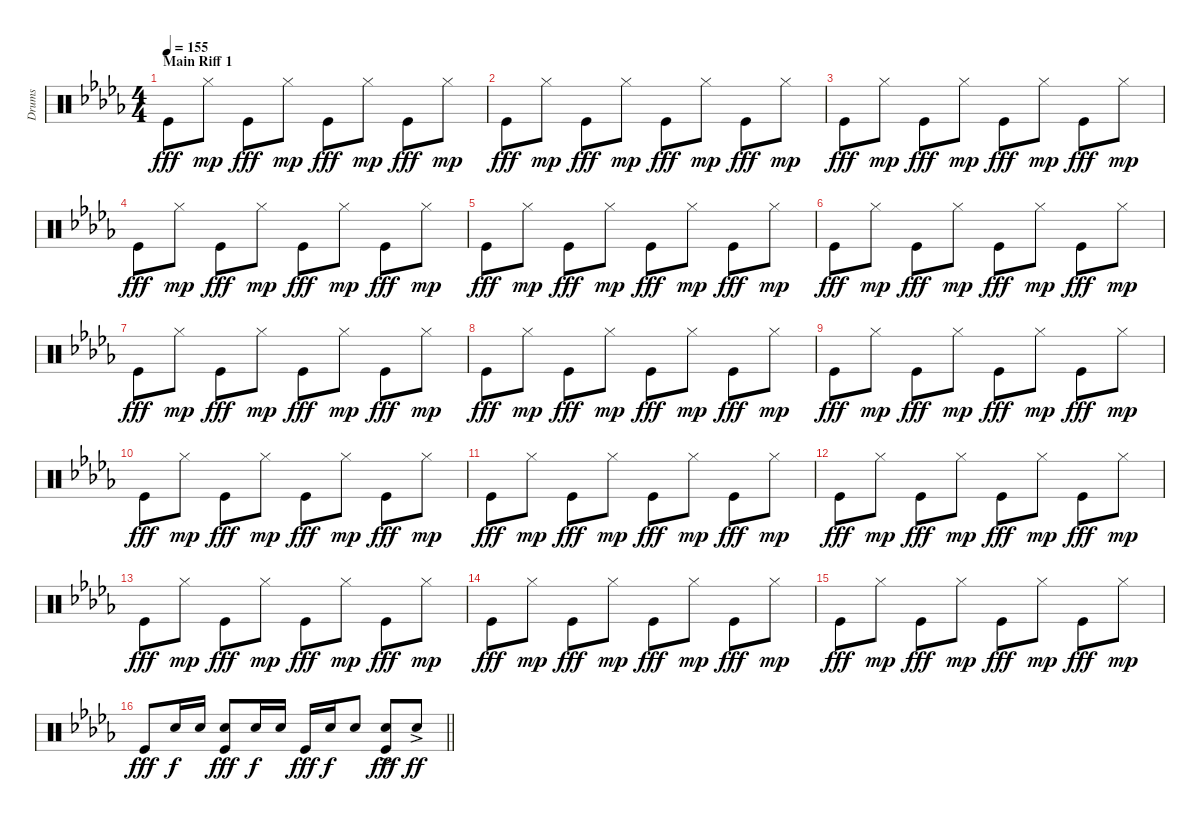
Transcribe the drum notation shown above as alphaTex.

\track ("Drums" "Drums") {instrument percussion bank 25}
\staff {score}
\articulation defaults
\ts (4 4)
\section ("" "Main Riff 1")
\tempo 155
\clef neutral
\ks bbminor "Kick (hit)".8{dy fff} "Hi-Hat (closed)".8{dy mp} "Kick (hit)".8{dy fff} "Hi-Hat (closed)".8{dy mp} "Kick (hit)".8{dy fff} "Hi-Hat (closed)".8{dy mp} "Kick (hit)".8{dy fff} "Hi-Hat (closed)".8{dy mp}
|
"Kick (hit)".8{dy fff} "Hi-Hat (closed)".8{dy mp} "Kick (hit)".8{dy fff} "Hi-Hat (closed)".8{dy mp} "Kick (hit)".8{dy fff} "Hi-Hat (closed)".8{dy mp} "Kick (hit)".8{dy fff} "Hi-Hat (closed)".8{dy mp} |
"Kick (hit)".8{dy fff} "Hi-Hat (closed)".8{dy mp} "Kick (hit)".8{dy fff} "Hi-Hat (closed)".8{dy mp} "Kick (hit)".8{dy fff} "Hi-Hat (closed)".8{dy mp} "Kick (hit)".8{dy fff} "Hi-Hat (closed)".8{dy mp} |
"Kick (hit)".8{dy fff} "Hi-Hat (closed)".8{dy mp} "Kick (hit)".8{dy fff} "Hi-Hat (closed)".8{dy mp} "Kick (hit)".8{dy fff} "Hi-Hat (closed)".8{dy mp} "Kick (hit)".8{dy fff} "Hi-Hat (closed)".8{dy mp} |
"Kick (hit)".8{dy fff} "Hi-Hat (closed)".8{dy mp} "Kick (hit)".8{dy fff} "Hi-Hat (closed)".8{dy mp} "Kick (hit)".8{dy fff} "Hi-Hat (closed)".8{dy mp} "Kick (hit)".8{dy fff} "Hi-Hat (closed)".8{dy mp} |
"Kick (hit)".8{dy fff} "Hi-Hat (closed)".8{dy mp} "Kick (hit)".8{dy fff} "Hi-Hat (closed)".8{dy mp} "Kick (hit)".8{dy fff} "Hi-Hat (closed)".8{dy mp} "Kick (hit)".8{dy fff} "Hi-Hat (closed)".8{dy mp} |
"Kick (hit)".8{dy fff} "Hi-Hat (closed)".8{dy mp} "Kick (hit)".8{dy fff} "Hi-Hat (closed)".8{dy mp} "Kick (hit)".8{dy fff} "Hi-Hat (closed)".8{dy mp} "Kick (hit)".8{dy fff} "Hi-Hat (closed)".8{dy mp} |
"Kick (hit)".8{dy fff} "Hi-Hat (closed)".8{dy mp} "Kick (hit)".8{dy fff} "Hi-Hat (closed)".8{dy mp} "Kick (hit)".8{dy fff} "Hi-Hat (closed)".8{dy mp} "Kick (hit)".8{dy fff} "Hi-Hat (closed)".8{dy mp} |
"Kick (hit)".8{dy fff} "Hi-Hat (closed)".8{dy mp} "Kick (hit)".8{dy fff} "Hi-Hat (closed)".8{dy mp} "Kick (hit)".8{dy fff} "Hi-Hat (closed)".8{dy mp} "Kick (hit)".8{dy fff} "Hi-Hat (closed)".8{dy mp} |
"Kick (hit)".8{dy fff} "Hi-Hat (closed)".8{dy mp} "Kick (hit)".8{dy fff} "Hi-Hat (closed)".8{dy mp} "Kick (hit)".8{dy fff} "Hi-Hat (closed)".8{dy mp} "Kick (hit)".8{dy fff} "Hi-Hat (closed)".8{dy mp} |
"Kick (hit)".8{dy fff} "Hi-Hat (closed)".8{dy mp} "Kick (hit)".8{dy fff} "Hi-Hat (closed)".8{dy mp} "Kick (hit)".8{dy fff} "Hi-Hat (closed)".8{dy mp} "Kick (hit)".8{dy fff} "Hi-Hat (closed)".8{dy mp} |
"Kick (hit)".8{dy fff} "Hi-Hat (closed)".8{dy mp} "Kick (hit)".8{dy fff} "Hi-Hat (closed)".8{dy mp} "Kick (hit)".8{dy fff} "Hi-Hat (closed)".8{dy mp} "Kick (hit)".8{dy fff} "Hi-Hat (closed)".8{dy mp} |
"Kick (hit)".8{dy fff} "Hi-Hat (closed)".8{dy mp} "Kick (hit)".8{dy fff} "Hi-Hat (closed)".8{dy mp} "Kick (hit)".8{dy fff} "Hi-Hat (closed)".8{dy mp} "Kick (hit)".8{dy fff} "Hi-Hat (closed)".8{dy mp} |
"Kick (hit)".8{dy fff} "Hi-Hat (closed)".8{dy mp} "Kick (hit)".8{dy fff} "Hi-Hat (closed)".8{dy mp} "Kick (hit)".8{dy fff} "Hi-Hat (closed)".8{dy mp} "Kick (hit)".8{dy fff} "Hi-Hat (closed)".8{dy mp} |
"Kick (hit)".8{dy fff} "Hi-Hat (closed)".8{dy mp} "Kick (hit)".8{dy fff} "Hi-Hat (closed)".8{dy mp} "Kick (hit)".8{dy fff} "Hi-Hat (closed)".8{dy mp} "Kick (hit)".8{dy fff} "Hi-Hat (closed)".8{dy mp} |
\barLineRight lightlight "Kick (hit)".8{dy fff} "Snare (hit) 2".16{dy f} "Snare (hit) 2".16
("Snare (hit) 2" "Kick (hit)").8{dy fff} "Snare (hit) 2".16{dy f} "Snare (hit) 2".16 "Kick (hit)".16{dy fff} "Snare (hit) 2".16{dy f} "Snare (hit) 2".8 ("Snare (hit) 2"{ac} "Kick (hit)").8{dy fff} "Snare (hit) 2"{ac}.8{dy ff}
